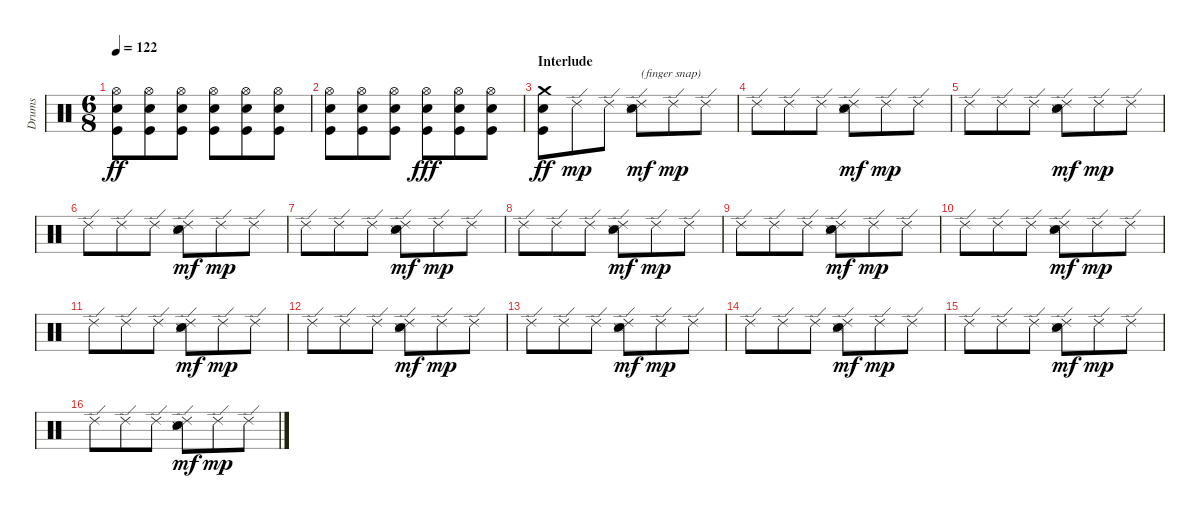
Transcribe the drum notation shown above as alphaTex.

\track ("Drums" "Drums") {instrument percussion}
\staff {score}
\articulation defaults
\ts (6 8)
\tempo 122
\clef neutral
\ks c
("Hi-Hat (open)" "Electric Snare (hit)" "Kick (hit)").8{dy ff} ("Hi-Hat (open)" "Electric Snare (hit)" "Kick (hit)").8 ("Hi-Hat (open)" "Electric Snare (hit)" "Kick (hit)").8 ("Hi-Hat (open)" "Electric Snare (hit)" "Kick (hit)").8 ("Hi-Hat (open)" "Electric Snare (hit)" "Kick (hit)").8 ("Hi-Hat (open)" "Electric Snare (hit)" "Kick (hit)").8 |
("Hi-Hat (open)" "Electric Snare (hit)" "Kick (hit)").8 ("Hi-Hat (open)" "Electric Snare (hit)" "Kick (hit)").8 ("Hi-Hat (open)" "Electric Snare (hit)" "Kick (hit)").8 ("Hi-Hat (open)" "Electric Snare (hit)" "Kick (hit)").8{dy fff} ("Hi-Hat (open)" "Electric Snare (hit)" "Kick (hit)").8 ("Hi-Hat (open)" "Electric Snare (hit)" "Kick (hit)").8 |
\section ("" "Interlude")
("Crash medium (hit)" "Electric Snare (hit)" "Kick (hit)").8{dy ff} "Ride (edge) 2".8{dy mp} "Ride (edge) 2".8 ("Ride (edge) 2" "Hand Clap (hit)" "Snare (side stick) 3").8{txt "(finger snap)" dy mf} "Ride (edge) 2".8{dy mp} "Ride (edge) 2".8 |
"Ride (edge) 2".8 "Ride (edge) 2".8 "Ride (edge) 2".8 ("Ride (edge) 2" "Hand Clap (hit)" "Snare (side stick) 3").8{dy mf} "Ride (edge) 2".8{dy mp} "Ride (edge) 2".8 |
"Ride (edge) 2".8 "Ride (edge) 2".8 "Ride (edge) 2".8 ("Ride (edge) 2" "Hand Clap (hit)" "Snare (side stick) 3").8{dy mf} "Ride (edge) 2".8{dy mp} "Ride (edge) 2".8 |
"Ride (edge) 2".8 "Ride (edge) 2".8 "Ride (edge) 2".8 ("Ride (edge) 2" "Hand Clap (hit)" "Snare (side stick) 3").8{dy mf} "Ride (edge) 2".8{dy mp} "Ride (edge) 2".8 |
"Ride (edge) 2".8 "Ride (edge) 2".8 "Ride (edge) 2".8 ("Ride (edge) 2" "Hand Clap (hit)" "Snare (side stick) 3").8{dy mf} "Ride (edge) 2".8{dy mp} "Ride (edge) 2".8 |
"Ride (edge) 2".8 "Ride (edge) 2".8 "Ride (edge) 2".8 ("Ride (edge) 2" "Hand Clap (hit)" "Snare (side stick) 3").8{dy mf} "Ride (edge) 2".8{dy mp} "Ride (edge) 2".8 |
"Ride (edge) 2".8 "Ride (edge) 2".8 "Ride (edge) 2".8 ("Ride (edge) 2" "Hand Clap (hit)" "Snare (side stick) 3").8{dy mf} "Ride (edge) 2".8{dy mp} "Ride (edge) 2".8 |
"Ride (edge) 2".8 "Ride (edge) 2".8 "Ride (edge) 2".8 ("Ride (edge) 2" "Hand Clap (hit)" "Snare (side stick) 3").8{dy mf} "Ride (edge) 2".8{dy mp} "Ride (edge) 2".8 |
"Ride (edge) 2".8 "Ride (edge) 2".8 "Ride (edge) 2".8 ("Ride (edge) 2" "Hand Clap (hit)" "Snare (side stick) 3").8{dy mf} "Ride (edge) 2".8{dy mp} "Ride (edge) 2".8 |
"Ride (edge) 2".8 "Ride (edge) 2".8 "Ride (edge) 2".8 ("Ride (edge) 2" "Hand Clap (hit)" "Snare (side stick) 3").8{dy mf} "Ride (edge) 2".8{dy mp} "Ride (edge) 2".8 |
"Ride (edge) 2".8 "Ride (edge) 2".8 "Ride (edge) 2".8 ("Ride (edge) 2" "Hand Clap (hit)" "Snare (side stick) 3").8{dy mf} "Ride (edge) 2".8{dy mp} "Ride (edge) 2".8 |
"Ride (edge) 2".8 "Ride (edge) 2".8 "Ride (edge) 2".8 ("Ride (edge) 2" "Hand Clap (hit)" "Snare (side stick) 3").8{dy mf} "Ride (edge) 2".8{dy mp} "Ride (edge) 2".8 |
"Ride (edge) 2".8 "Ride (edge) 2".8 "Ride (edge) 2".8 ("Ride (edge) 2" "Hand Clap (hit)" "Snare (side stick) 3").8{dy mf} "Ride (edge) 2".8{dy mp} "Ride (edge) 2".8 |
"Ride (edge) 2".8 "Ride (edge) 2".8 "Ride (edge) 2".8 ("Ride (edge) 2" "Hand Clap (hit)" "Snare (side stick) 3").8{dy mf} "Ride (edge) 2".8{dy mp} "Ride (edge) 2".8
